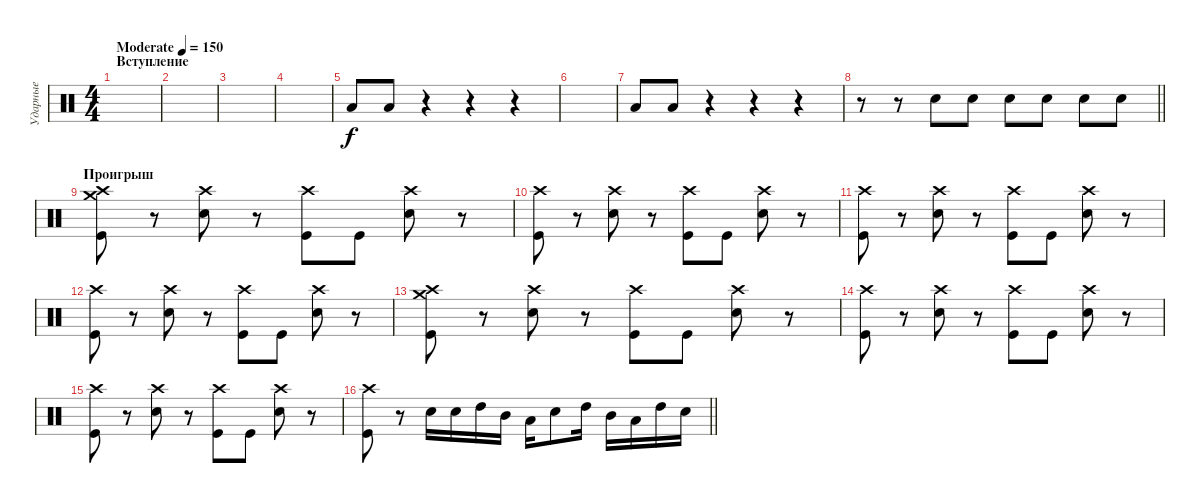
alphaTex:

\track ("Ударные" "Ударные") {instrument percussion}
\staff {score}
\articulation defaults
\ts (4 4)
\section ("" "Вступление")
\tempo (150 "Moderate")
\clef neutral
\ks c
|
|
|
|
"Low Tom (hit)".8 "Low Tom (hit)".8 r.4 r.4 r.4 |
|
"Low Tom (hit)".8 "Low Tom (hit)".8 r.4 r.4 r.4 |
\barLineRight lightlight
r.8 r.8 "Electric Snare (hit)".8 "Electric Snare (hit)".8 "Electric Snare (hit)".8 "Electric Snare (hit)".8 "Electric Snare (hit)".8 "Electric Snare (hit)".8 |
\section ("" "Проигрыш")
("Crash medium (hit)" "Crash high (hit)" "Kick (hit)").8 r.8 ("Crash high (hit)" "Electric Snare (hit)").8 r.8 ("Crash high (hit)" "Kick (hit)").8 "Kick (hit)".8 ("Crash high (hit)" "Electric Snare (hit)").8 r.8 |
("Crash high (hit)" "Kick (hit)").8 r.8 ("Crash high (hit)" "Electric Snare (hit)").8 r.8 ("Crash high (hit)" "Kick (hit)").8 "Kick (hit)".8 ("Crash high (hit)" "Electric Snare (hit)").8 r.8 |
("Crash high (hit)" "Kick (hit)").8 r.8 ("Crash high (hit)" "Electric Snare (hit)").8 r.8 ("Crash high (hit)" "Kick (hit)").8 "Kick (hit)".8 ("Crash high (hit)" "Electric Snare (hit)").8 r.8 |
("Crash high (hit)" "Kick (hit)").8 r.8 ("Crash high (hit)" "Electric Snare (hit)").8 r.8 ("Crash high (hit)" "Kick (hit)").8 "Kick (hit)".8 ("Crash high (hit)" "Electric Snare (hit)").8 r.8 |
("Crash medium (hit)" "Crash high (hit)" "Kick (hit)").8 r.8 ("Crash high (hit)" "Electric Snare (hit)").8 r.8 ("Crash high (hit)" "Kick (hit)").8 "Kick (hit)".8 ("Crash high (hit)" "Electric Snare (hit)").8 r.8 |
("Crash high (hit)" "Kick (hit)").8 r.8 ("Crash high (hit)" "Electric Snare (hit)").8 r.8 ("Crash high (hit)" "Kick (hit)").8 "Kick (hit)".8 ("Crash high (hit)" "Electric Snare (hit)").8 r.8 |
("Crash high (hit)" "Kick (hit)").8 r.8 ("Crash high (hit)" "Electric Snare (hit)").8 r.8 ("Crash high (hit)" "Kick (hit)").8 "Kick (hit)".8 ("Crash high (hit)" "Electric Snare (hit)").8 r.8 |
\barLineRight lightlight
("Crash high (hit)" "Kick (hit)").8 r.8 "Electric Snare (hit)".16 "Electric Snare (hit)".16 "High Tom (hit)".16 "Mid Tom (hit)".16 "Low Tom (hit)".16 "Electric Snare (hit)".8 "High Tom (hit)".16 "Mid Tom (hit)".16 "Low Tom (hit)".16 "High Tom (hit)".16 "Electric Snare (hit)".16
